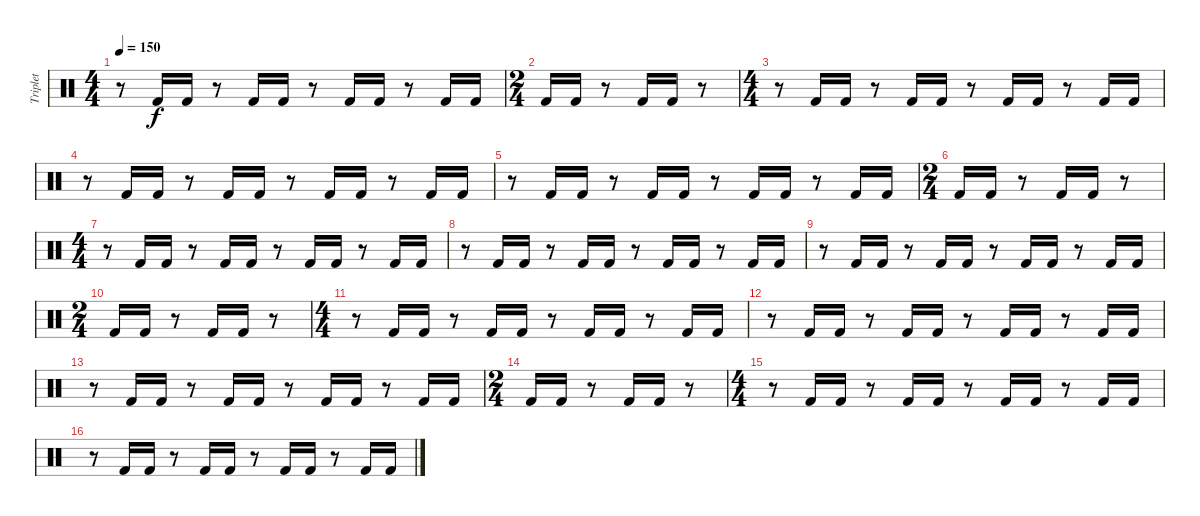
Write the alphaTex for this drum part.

\track ("Triplet" "Triplet") {instrument percussion}
\staff {score}
\articulation defaults
\ts (4 4)
\tempo 150
\clef neutral
\ks c
r.8{dy f} "Kick (hit) 2".16 "Kick (hit) 2".16 r.8 "Kick (hit) 2".16 "Kick (hit) 2".16 r.8 "Kick (hit) 2".16 "Kick (hit) 2".16 r.8 "Kick (hit) 2".16 "Kick (hit) 2".16 |
\ts (2 4)
"Kick (hit) 2".16 "Kick (hit) 2".16 r.8 "Kick (hit) 2".16 "Kick (hit) 2".16 r.8 |
\ts (4 4)
r.8 "Kick (hit) 2".16 "Kick (hit) 2".16 r.8 "Kick (hit) 2".16 "Kick (hit) 2".16 r.8 "Kick (hit) 2".16 "Kick (hit) 2".16 r.8 "Kick (hit) 2".16 "Kick (hit) 2".16 |
r.8 "Kick (hit) 2".16 "Kick (hit) 2".16 r.8 "Kick (hit) 2".16 "Kick (hit) 2".16 r.8 "Kick (hit) 2".16 "Kick (hit) 2".16 r.8 "Kick (hit) 2".16 "Kick (hit) 2".16 |
r.8 "Kick (hit) 2".16 "Kick (hit) 2".16 r.8 "Kick (hit) 2".16 "Kick (hit) 2".16 r.8 "Kick (hit) 2".16 "Kick (hit) 2".16 r.8 "Kick (hit) 2".16 "Kick (hit) 2".16 |
\ts (2 4)
"Kick (hit) 2".16 "Kick (hit) 2".16 r.8 "Kick (hit) 2".16 "Kick (hit) 2".16 r.8 |
\ts (4 4)
r.8 "Kick (hit) 2".16 "Kick (hit) 2".16 r.8 "Kick (hit) 2".16 "Kick (hit) 2".16 r.8 "Kick (hit) 2".16 "Kick (hit) 2".16 r.8 "Kick (hit) 2".16 "Kick (hit) 2".16 |
r.8 "Kick (hit) 2".16 "Kick (hit) 2".16 r.8 "Kick (hit) 2".16 "Kick (hit) 2".16 r.8 "Kick (hit) 2".16 "Kick (hit) 2".16 r.8 "Kick (hit) 2".16 "Kick (hit) 2".16 |
r.8 "Kick (hit) 2".16 "Kick (hit) 2".16 r.8 "Kick (hit) 2".16 "Kick (hit) 2".16 r.8 "Kick (hit) 2".16 "Kick (hit) 2".16 r.8 "Kick (hit) 2".16 "Kick (hit) 2".16 |
\ts (2 4)
"Kick (hit) 2".16 "Kick (hit) 2".16 r.8 "Kick (hit) 2".16 "Kick (hit) 2".16 r.8 |
\ts (4 4)
r.8 "Kick (hit) 2".16 "Kick (hit) 2".16 r.8 "Kick (hit) 2".16 "Kick (hit) 2".16 r.8 "Kick (hit) 2".16 "Kick (hit) 2".16 r.8 "Kick (hit) 2".16 "Kick (hit) 2".16 |
r.8 "Kick (hit) 2".16 "Kick (hit) 2".16 r.8 "Kick (hit) 2".16 "Kick (hit) 2".16 r.8 "Kick (hit) 2".16 "Kick (hit) 2".16 r.8 "Kick (hit) 2".16 "Kick (hit) 2".16 |
r.8 "Kick (hit) 2".16 "Kick (hit) 2".16 r.8 "Kick (hit) 2".16 "Kick (hit) 2".16 r.8 "Kick (hit) 2".16 "Kick (hit) 2".16 r.8 "Kick (hit) 2".16 "Kick (hit) 2".16 |
\ts (2 4)
"Kick (hit) 2".16 "Kick (hit) 2".16 r.8 "Kick (hit) 2".16 "Kick (hit) 2".16 r.8 |
\ts (4 4)
r.8 "Kick (hit) 2".16 "Kick (hit) 2".16 r.8 "Kick (hit) 2".16 "Kick (hit) 2".16 r.8 "Kick (hit) 2".16 "Kick (hit) 2".16 r.8 "Kick (hit) 2".16 "Kick (hit) 2".16 |
r.8 "Kick (hit) 2".16 "Kick (hit) 2".16 r.8 "Kick (hit) 2".16 "Kick (hit) 2".16 r.8 "Kick (hit) 2".16 "Kick (hit) 2".16 r.8 "Kick (hit) 2".16 "Kick (hit) 2".16
